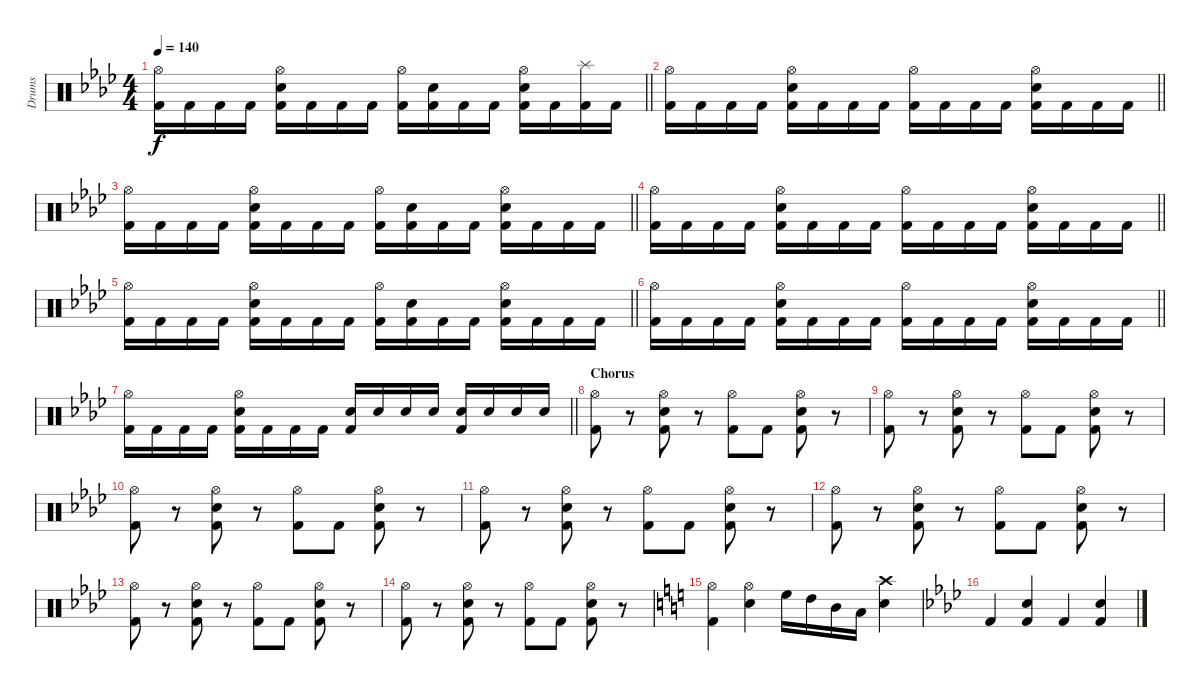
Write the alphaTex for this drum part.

\track ("Drums" "Drums") {instrument percussion}
\staff {score}
\articulation defaults
\ts (4 4)
\tempo 140
\clef neutral
\barLineRight lightlight
\ks ab
("Hi-Hat (open)" "Kick (hit) 2").16{dy f} "Kick (hit) 2".16 "Kick (hit) 2".16 "Kick (hit) 2".16 ("Hi-Hat (open)" "Electric Snare (hit)" "Kick (hit) 2").16 "Kick (hit) 2".16 "Kick (hit) 2".16 "Kick (hit) 2".16 ("Hi-Hat (open)" "Kick (hit) 2").16 ("Electric Snare (hit)" "Kick (hit) 2").16 "Kick (hit) 2".16 "Kick (hit) 2".16 ("Hi-Hat (open)" "Electric Snare (hit)" "Kick (hit) 2").16 "Kick (hit) 2".16 ("Splash (hit)" "Kick (hit) 2").16 "Kick (hit) 2".16 |
\barLineRight lightlight
("Hi-Hat (open)" "Kick (hit) 2").16 "Kick (hit) 2".16 "Kick (hit) 2".16 "Kick (hit) 2".16 ("Hi-Hat (open)" "Electric Snare (hit)" "Kick (hit) 2").16 "Kick (hit) 2".16 "Kick (hit) 2".16 "Kick (hit) 2".16 ("Hi-Hat (open)" "Kick (hit) 2").16 "Kick (hit) 2".16 "Kick (hit) 2".16 "Kick (hit) 2".16 ("Hi-Hat (open)" "Electric Snare (hit)" "Kick (hit) 2").16 "Kick (hit) 2".16 "Kick (hit) 2".16 "Kick (hit) 2".16 |
\barLineRight lightlight
("Hi-Hat (open)" "Kick (hit) 2").16 "Kick (hit) 2".16 "Kick (hit) 2".16 "Kick (hit) 2".16 ("Hi-Hat (open)" "Electric Snare (hit)" "Kick (hit) 2").16 "Kick (hit) 2".16 "Kick (hit) 2".16 "Kick (hit) 2".16 ("Hi-Hat (open)" "Kick (hit) 2").16 ("Electric Snare (hit)" "Kick (hit) 2").16 "Kick (hit) 2".16 "Kick (hit) 2".16 ("Hi-Hat (open)" "Electric Snare (hit)" "Kick (hit) 2").16 "Kick (hit) 2".16 "Kick (hit) 2".16 "Kick (hit) 2".16 |
\barLineRight lightlight
("Hi-Hat (open)" "Kick (hit) 2").16 "Kick (hit) 2".16 "Kick (hit) 2".16 "Kick (hit) 2".16 ("Hi-Hat (open)" "Electric Snare (hit)" "Kick (hit) 2").16 "Kick (hit) 2".16 "Kick (hit) 2".16 "Kick (hit) 2".16 ("Hi-Hat (open)" "Kick (hit) 2").16 "Kick (hit) 2".16 "Kick (hit) 2".16 "Kick (hit) 2".16 ("Hi-Hat (open)" "Electric Snare (hit)" "Kick (hit) 2").16 "Kick (hit) 2".16 "Kick (hit) 2".16 "Kick (hit) 2".16 |
\barLineRight lightlight
("Hi-Hat (open)" "Kick (hit) 2").16 "Kick (hit) 2".16 "Kick (hit) 2".16 "Kick (hit) 2".16 ("Hi-Hat (open)" "Electric Snare (hit)" "Kick (hit) 2").16 "Kick (hit) 2".16 "Kick (hit) 2".16 "Kick (hit) 2".16 ("Hi-Hat (open)" "Kick (hit) 2").16 ("Electric Snare (hit)" "Kick (hit) 2").16 "Kick (hit) 2".16 "Kick (hit) 2".16 ("Hi-Hat (open)" "Electric Snare (hit)" "Kick (hit) 2").16 "Kick (hit) 2".16 "Kick (hit) 2".16 "Kick (hit) 2".16 |
\barLineRight lightlight
("Hi-Hat (open)" "Kick (hit) 2").16 "Kick (hit) 2".16 "Kick (hit) 2".16 "Kick (hit) 2".16 ("Hi-Hat (open)" "Electric Snare (hit)" "Kick (hit) 2").16 "Kick (hit) 2".16 "Kick (hit) 2".16 "Kick (hit) 2".16 ("Hi-Hat (open)" "Kick (hit) 2").16 "Kick (hit) 2".16 "Kick (hit) 2".16 "Kick (hit) 2".16 ("Hi-Hat (open)" "Electric Snare (hit)" "Kick (hit) 2").16 "Kick (hit) 2".16 "Kick (hit) 2".16 "Kick (hit) 2".16 |
\barLineRight lightlight
("Hi-Hat (open)" "Kick (hit) 2").16 "Kick (hit) 2".16 "Kick (hit) 2".16 "Kick (hit) 2".16 ("Hi-Hat (open)" "Electric Snare (hit)" "Kick (hit) 2").16 "Kick (hit) 2".16 "Kick (hit) 2".16 "Kick (hit) 2".16 ("Electric Snare (hit)" "Kick (hit) 2").16 "Electric Snare (hit)".16 "Electric Snare (hit)".16 "Electric Snare (hit)".16 ("Electric Snare (hit)" "Kick (hit) 2").16 "Electric Snare (hit)".16 "Electric Snare (hit)".16 "Electric Snare (hit)".16 |
\section ("" "Chorus")
("Hi-Hat (open)" "Kick (hit) 2").8 r.8 ("Hi-Hat (open)" "Electric Snare (hit)" "Kick (hit) 2").8 r.8 ("Hi-Hat (open)" "Kick (hit) 2").8 "Kick (hit) 2".8 ("Hi-Hat (open)" "Electric Snare (hit)" "Kick (hit) 2").8 r.8 |
("Hi-Hat (open)" "Kick (hit) 2").8 r.8 ("Hi-Hat (open)" "Electric Snare (hit)" "Kick (hit) 2").8 r.8 ("Hi-Hat (open)" "Kick (hit) 2").8 "Kick (hit) 2".8 ("Hi-Hat (open)" "Electric Snare (hit)" "Kick (hit) 2").8 r.8 |
("Hi-Hat (open)" "Kick (hit) 2").8 r.8 ("Hi-Hat (open)" "Electric Snare (hit)" "Kick (hit) 2").8 r.8 ("Hi-Hat (open)" "Kick (hit) 2").8 "Kick (hit) 2".8 ("Hi-Hat (open)" "Electric Snare (hit)" "Kick (hit) 2").8 r.8 |
("Hi-Hat (open)" "Kick (hit) 2").8 r.8 ("Hi-Hat (open)" "Electric Snare (hit)" "Kick (hit) 2").8 r.8 ("Hi-Hat (open)" "Kick (hit) 2").8 "Kick (hit) 2".8 ("Hi-Hat (open)" "Electric Snare (hit)" "Kick (hit) 2").8 r.8 |
("Hi-Hat (open)" "Kick (hit) 2").8 r.8 ("Hi-Hat (open)" "Electric Snare (hit)" "Kick (hit) 2").8 r.8 ("Hi-Hat (open)" "Kick (hit) 2").8 "Kick (hit) 2".8 ("Hi-Hat (open)" "Electric Snare (hit)" "Kick (hit) 2").8 r.8 |
("Hi-Hat (open)" "Kick (hit) 2").8 r.8 ("Hi-Hat (open)" "Electric Snare (hit)" "Kick (hit) 2").8 r.8 ("Hi-Hat (open)" "Kick (hit) 2").8 "Kick (hit) 2".8 ("Hi-Hat (open)" "Electric Snare (hit)" "Kick (hit) 2").8 r.8 |
("Hi-Hat (open)" "Kick (hit) 2").8 r.8 ("Hi-Hat (open)" "Electric Snare (hit)" "Kick (hit) 2").8 r.8 ("Hi-Hat (open)" "Kick (hit) 2").8 "Kick (hit) 2".8 ("Hi-Hat (open)" "Electric Snare (hit)" "Kick (hit) 2").8 r.8 |
\ks c
("Hi-Hat (open)" "Kick (hit) 2").4 ("Hi-Hat (open)" "Electric Snare (hit)").4 "High Floor Tom (hit)".16 "High Tom (hit)".16 "Mid Tom (hit)".16 "Low Tom (hit)".16 ("Crash high (hit)" "Electric Snare (hit)").4 |
\ks ab "Kick (hit) 2".4
("Electric Snare (hit)" "Kick (hit) 2").4 "Kick (hit) 2".4 ("Electric Snare (hit)" "Kick (hit) 2").4
